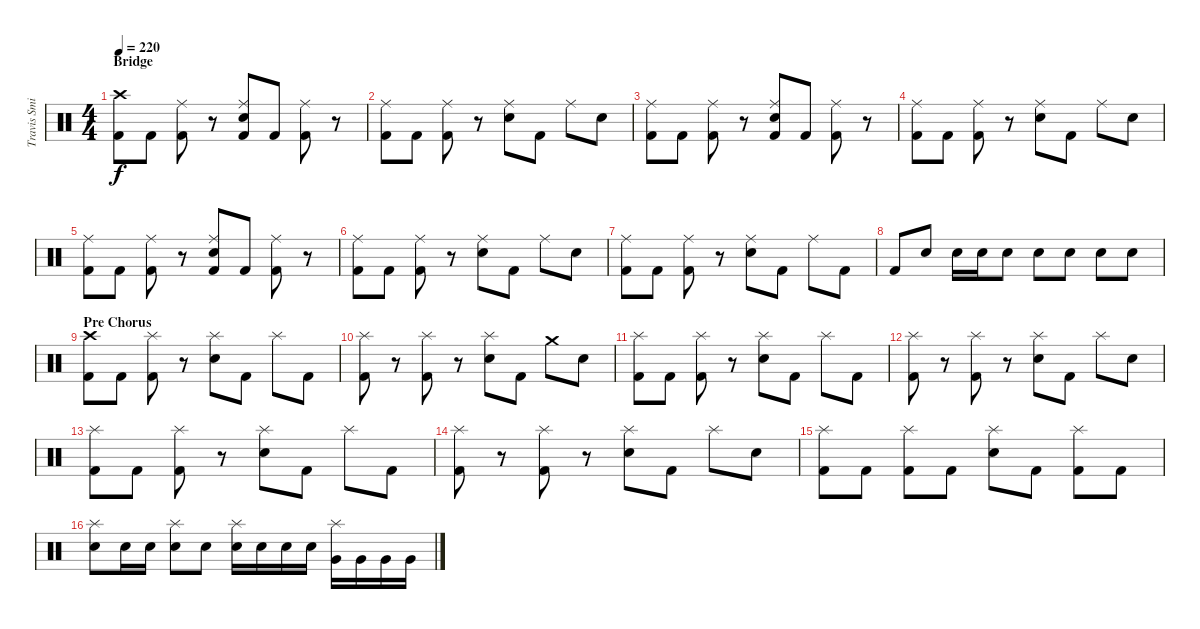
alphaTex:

\track ("Travis Smith" "Travis Smi") {instrument percussion}
\staff {score}
\articulation defaults
\ts (4 4)
\section ("" "Bridge")
\tempo 220
\clef neutral
\ks c
("Crash high (hit)" "Kick (hit) 2").8{dy f} "Kick (hit) 2".8 ("Ride (middle)" "Kick (hit) 2").8 r.8 ("Ride (middle)" "Electric Snare (hit)" "Kick (hit) 2").8 "Kick (hit) 2".8 ("Ride (middle)" "Kick (hit) 2").8 r.8 |
("Ride (middle)" "Kick (hit) 2").8 "Kick (hit) 2".8 ("Ride (middle)" "Kick (hit) 2").8 r.8 ("Ride (middle)" "Electric Snare (hit)").8 "Kick (hit) 2".8 "Ride (middle)".8 "Electric Snare (hit)".8 |
("Ride (middle)" "Kick (hit) 2").8 "Kick (hit) 2".8 ("Ride (middle)" "Kick (hit) 2").8 r.8 ("Ride (middle)" "Electric Snare (hit)" "Kick (hit) 2").8 "Kick (hit) 2".8 ("Ride (middle)" "Kick (hit) 2").8 r.8 |
("Ride (middle)" "Kick (hit) 2").8 "Kick (hit) 2".8 ("Ride (middle)" "Kick (hit) 2").8 r.8 ("Ride (middle)" "Electric Snare (hit)").8 "Kick (hit) 2".8 "Ride (middle)".8 "Electric Snare (hit)".8 |
("Ride (middle)" "Kick (hit) 2").8 "Kick (hit) 2".8 ("Ride (middle)" "Kick (hit) 2").8 r.8 ("Ride (middle)" "Electric Snare (hit)" "Kick (hit) 2").8 "Kick (hit) 2".8 ("Ride (middle)" "Kick (hit) 2").8 r.8 |
("Ride (middle)" "Kick (hit) 2").8 "Kick (hit) 2".8 ("Ride (middle)" "Kick (hit) 2").8 r.8 ("Ride (middle)" "Electric Snare (hit)").8 "Kick (hit) 2".8 "Ride (middle)".8 "Electric Snare (hit)".8 |
("Ride (middle)" "Kick (hit) 2").8 "Kick (hit) 2".8 ("Ride (middle)" "Kick (hit) 2").8 r.8 ("Ride (middle)" "Electric Snare (hit)").8 "Kick (hit) 2".8 "Ride (middle)".8 "Kick (hit) 2".8 |
"Kick (hit) 2".8 "Electric Snare (hit)".8 "Electric Snare (hit)".16 "Electric Snare (hit)".16 "Electric Snare (hit)".8 "Electric Snare (hit)".8 "Electric Snare (hit)".8 "Electric Snare (hit)".8 "Electric Snare (hit)".8 |
\section ("" "Pre Chorus")
("Crash high (hit)" "Kick (hit) 2").8 "Kick (hit) 2".8 ("Splash (hit)" "Kick (hit) 2").8 r.8 ("Splash (hit)" "Electric Snare (hit)").8 "Kick (hit) 2".8 "Splash (hit)".8 "Kick (hit) 2".8 |
("Splash (hit)" "Kick (hit) 2").8 r.8 ("Splash (hit)" "Kick (hit) 2").8 r.8 ("Splash (hit)" "Electric Snare (hit)").8 "Kick (hit) 2".8 "Crash medium (hit)".8 "Electric Snare (hit)".8 |
("Splash (hit)" "Kick (hit) 2").8 "Kick (hit) 2".8 ("Splash (hit)" "Kick (hit) 2").8 r.8 ("Splash (hit)" "Electric Snare (hit)").8 "Kick (hit) 2".8 "Splash (hit)".8 "Kick (hit) 2".8 |
("Splash (hit)" "Kick (hit) 2").8 r.8 ("Splash (hit)" "Kick (hit) 2").8 r.8 ("Splash (hit)" "Electric Snare (hit)").8 "Kick (hit) 2".8 "Splash (hit)".8 "Electric Snare (hit)".8 |
("Splash (hit)" "Kick (hit) 2").8 "Kick (hit) 2".8 ("Splash (hit)" "Kick (hit) 2").8 r.8 ("Splash (hit)" "Electric Snare (hit)").8 "Kick (hit) 2".8 "Splash (hit)".8 "Kick (hit) 2".8 |
("Splash (hit)" "Kick (hit) 2").8 r.8 ("Splash (hit)" "Kick (hit) 2").8 r.8 ("Splash (hit)" "Electric Snare (hit)").8 "Kick (hit) 2".8 "Splash (hit)".8 "Electric Snare (hit)".8 |
("Splash (hit)" "Kick (hit) 2").8 "Kick (hit) 2".8 ("Splash (hit)" "Kick (hit) 2").8 "Kick (hit) 2".8 ("Splash (hit)" "Electric Snare (hit)").8 "Kick (hit) 2".8 ("Splash (hit)" "Kick (hit) 2").8 "Kick (hit) 2".8 |
("Splash (hit)" "Electric Snare (hit)").8 "Electric Snare (hit)".16 "Electric Snare (hit)".16 ("Splash (hit)" "Electric Snare (hit)").8 "Electric Snare (hit)".8 ("Splash (hit)" "Electric Snare (hit)").16 "Electric Snare (hit)".16 "Electric Snare (hit)".16 "Electric Snare (hit)".16 ("Splash (hit)" "Very Low Tom (hit)").16 "Very Low Tom (hit)".16 "Very Low Tom (hit)".16 "Very Low Tom (hit)".16
